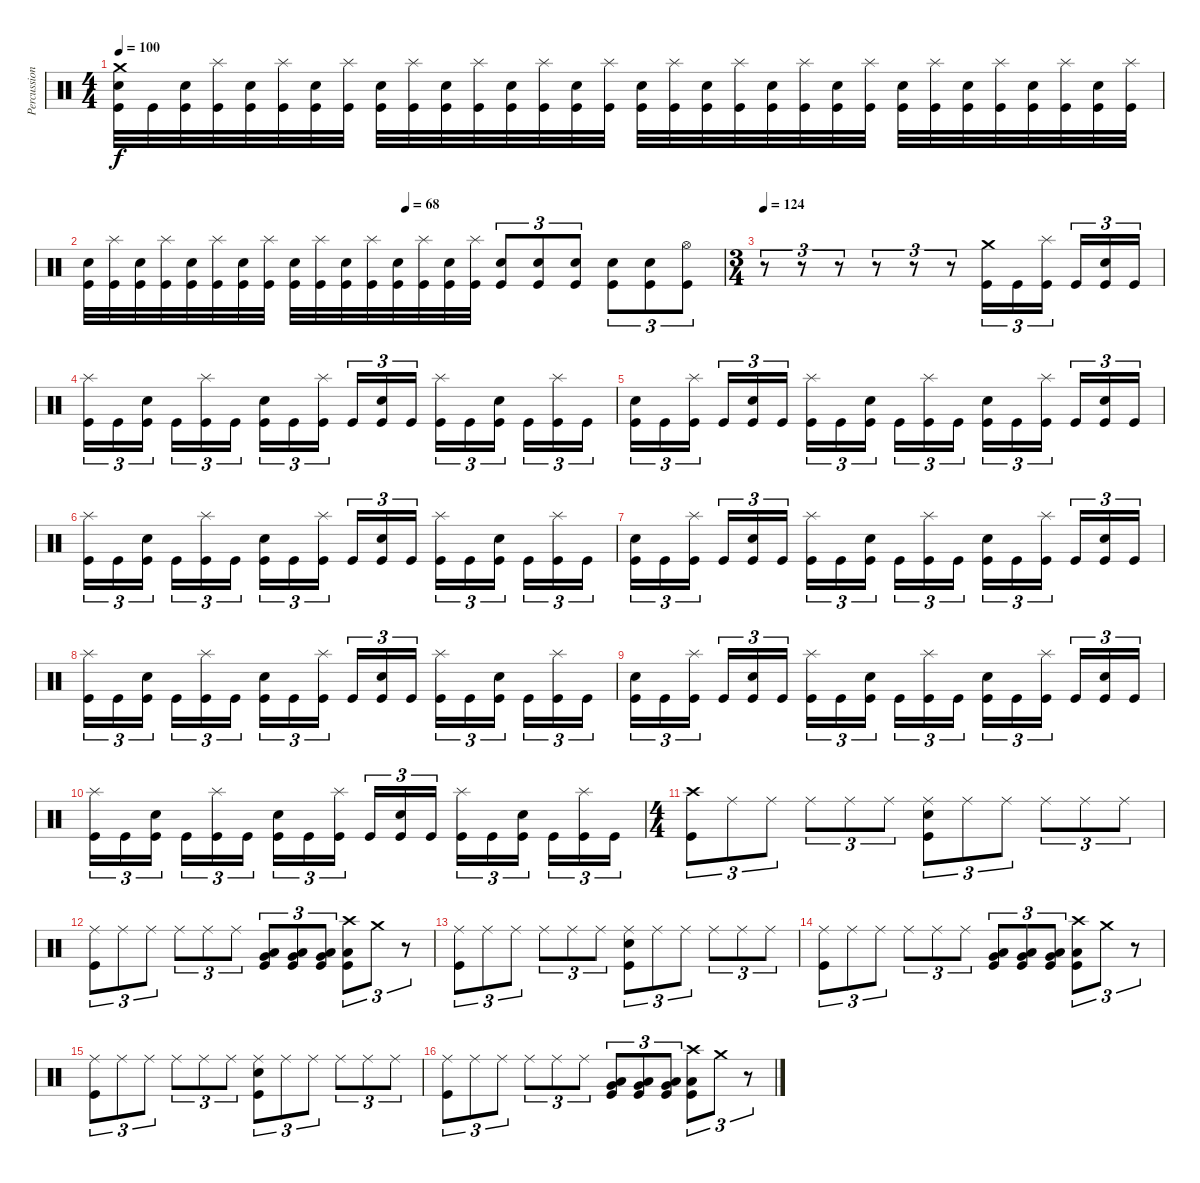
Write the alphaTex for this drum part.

\track ("Percussion" "Percussion") {instrument percussion}
\staff {score}
\articulation defaults
\ts (4 4)
\tempo 100
\clef neutral
\ks c
("Crash medium (hit)" "Electric Snare (hit)" "Kick (hit)").32{dy f} "Kick (hit)".32 ("Electric Snare (hit)" "Kick (hit)").32 ("Splash (hit)" "Kick (hit)").32 ("Electric Snare (hit)" "Kick (hit)").32 ("Splash (hit)" "Kick (hit)").32 ("Electric Snare (hit)" "Kick (hit)").32 ("Splash (hit)" "Kick (hit)").32 ("Electric Snare (hit)" "Kick (hit)").32 ("Splash (hit)" "Kick (hit)").32 ("Electric Snare (hit)" "Kick (hit)").32 ("Splash (hit)" "Kick (hit)").32 ("Electric Snare (hit)" "Kick (hit)").32 ("Splash (hit)" "Kick (hit)").32 ("Electric Snare (hit)" "Kick (hit)").32 ("Splash (hit)" "Kick (hit)").32 ("Electric Snare (hit)" "Kick (hit)").32 ("Splash (hit)" "Kick (hit)").32 ("Electric Snare (hit)" "Kick (hit)").32 ("Splash (hit)" "Kick (hit)").32 ("Electric Snare (hit)" "Kick (hit)").32 ("Splash (hit)" "Kick (hit)").32 ("Electric Snare (hit)" "Kick (hit)").32 ("Splash (hit)" "Kick (hit)").32 ("Electric Snare (hit)" "Kick (hit)").32 ("Splash (hit)" "Kick (hit)").32 ("Electric Snare (hit)" "Kick (hit)").32 ("Splash (hit)" "Kick (hit)").32 ("Electric Snare (hit)" "Kick (hit)").32 ("Splash (hit)" "Kick (hit)").32 ("Electric Snare (hit)" "Kick (hit)").32 ("Splash (hit)" "Kick (hit)").32 |
\tempo (68 0.5)
("Electric Snare (hit)" "Kick (hit)").32 ("Splash (hit)" "Kick (hit)").32 ("Electric Snare (hit)" "Kick (hit)").32 ("Splash (hit)" "Kick (hit)").32 ("Electric Snare (hit)" "Kick (hit)").32 ("Splash (hit)" "Kick (hit)").32 ("Electric Snare (hit)" "Kick (hit)").32 ("Splash (hit)" "Kick (hit)").32 ("Electric Snare (hit)" "Kick (hit)").32 ("Splash (hit)" "Kick (hit)").32 ("Electric Snare (hit)" "Kick (hit)").32 ("Splash (hit)" "Kick (hit)").32 ("Electric Snare (hit)" "Kick (hit)").32 ("Splash (hit)" "Kick (hit)").32 ("Electric Snare (hit)" "Kick (hit)").32 ("Splash (hit)" "Kick (hit)").32 ("Electric Snare (hit)" "Kick (hit)").8{tu (3 2)} ("Electric Snare (hit)" "Kick (hit)").8{tu (3 2)} ("Electric Snare (hit)" "Kick (hit)").8{tu (3 2)} ("Electric Snare (hit)" "Kick (hit)").8{tu (3 2)} ("Electric Snare (hit)" "Kick (hit)").8{tu (3 2)} ("Hi-Hat (open)" "Kick (hit)").8{tu (3 2)} |
\ts (3 4)
\tempo 124
r.8{tu (3 2)} r.8{tu (3 2)} r.8{tu (3 2)} r.8{tu (3 2)} r.8{tu (3 2)} r.8{tu (3 2)} ("Crash medium (hit)" "Kick (hit)").16{tu (3 2)} "Kick (hit)".16{tu (3 2)} ("Splash (hit)" "Kick (hit)").16{tu (3 2)} "Kick (hit)".16{tu (3 2)} ("Electric Snare (hit)" "Kick (hit)").16{tu (3 2)} "Kick (hit)".16{tu (3 2)} |
("Splash (hit)" "Kick (hit)").16{tu (3 2)} "Kick (hit)".16{tu (3 2)} ("Electric Snare (hit)" "Kick (hit)").16{tu (3 2)} "Kick (hit)".16{tu (3 2)} ("Splash (hit)" "Kick (hit)").16{tu (3 2)} "Kick (hit)".16{tu (3 2)} ("Electric Snare (hit)" "Kick (hit)").16{tu (3 2)} "Kick (hit)".16{tu (3 2)} ("Splash (hit)" "Kick (hit)").16{tu (3 2)} "Kick (hit)".16{tu (3 2)} ("Electric Snare (hit)" "Kick (hit)").16{tu (3 2)} "Kick (hit)".16{tu (3 2)} ("Splash (hit)" "Kick (hit)").16{tu (3 2)} "Kick (hit)".16{tu (3 2)} ("Electric Snare (hit)" "Kick (hit)").16{tu (3 2)} "Kick (hit)".16{tu (3 2)} ("Splash (hit)" "Kick (hit)").16{tu (3 2)} "Kick (hit)".16{tu (3 2)} |
("Electric Snare (hit)" "Kick (hit)").16{tu (3 2)} "Kick (hit)".16{tu (3 2)} ("Splash (hit)" "Kick (hit)").16{tu (3 2)} "Kick (hit)".16{tu (3 2)} ("Electric Snare (hit)" "Kick (hit)").16{tu (3 2)} "Kick (hit)".16{tu (3 2)} ("Splash (hit)" "Kick (hit)").16{tu (3 2)} "Kick (hit)".16{tu (3 2)} ("Electric Snare (hit)" "Kick (hit)").16{tu (3 2)} "Kick (hit)".16{tu (3 2)} ("Splash (hit)" "Kick (hit)").16{tu (3 2)} "Kick (hit)".16{tu (3 2)} ("Electric Snare (hit)" "Kick (hit)").16{tu (3 2)} "Kick (hit)".16{tu (3 2)} ("Splash (hit)" "Kick (hit)").16{tu (3 2)} "Kick (hit)".16{tu (3 2)} ("Electric Snare (hit)" "Kick (hit)").16{tu (3 2)} "Kick (hit)".16{tu (3 2)} |
("Splash (hit)" "Kick (hit)").16{tu (3 2)} "Kick (hit)".16{tu (3 2)} ("Electric Snare (hit)" "Kick (hit)").16{tu (3 2)} "Kick (hit)".16{tu (3 2)} ("Splash (hit)" "Kick (hit)").16{tu (3 2)} "Kick (hit)".16{tu (3 2)} ("Electric Snare (hit)" "Kick (hit)").16{tu (3 2)} "Kick (hit)".16{tu (3 2)} ("Splash (hit)" "Kick (hit)").16{tu (3 2)} "Kick (hit)".16{tu (3 2)} ("Electric Snare (hit)" "Kick (hit)").16{tu (3 2)} "Kick (hit)".16{tu (3 2)} ("Splash (hit)" "Kick (hit)").16{tu (3 2)} "Kick (hit)".16{tu (3 2)} ("Electric Snare (hit)" "Kick (hit)").16{tu (3 2)} "Kick (hit)".16{tu (3 2)} ("Splash (hit)" "Kick (hit)").16{tu (3 2)} "Kick (hit)".16{tu (3 2)} |
("Electric Snare (hit)" "Kick (hit)").16{tu (3 2)} "Kick (hit)".16{tu (3 2)} ("Splash (hit)" "Kick (hit)").16{tu (3 2)} "Kick (hit)".16{tu (3 2)} ("Electric Snare (hit)" "Kick (hit)").16{tu (3 2)} "Kick (hit)".16{tu (3 2)} ("Splash (hit)" "Kick (hit)").16{tu (3 2)} "Kick (hit)".16{tu (3 2)} ("Electric Snare (hit)" "Kick (hit)").16{tu (3 2)} "Kick (hit)".16{tu (3 2)} ("Splash (hit)" "Kick (hit)").16{tu (3 2)} "Kick (hit)".16{tu (3 2)} ("Electric Snare (hit)" "Kick (hit)").16{tu (3 2)} "Kick (hit)".16{tu (3 2)} ("Splash (hit)" "Kick (hit)").16{tu (3 2)} "Kick (hit)".16{tu (3 2)} ("Electric Snare (hit)" "Kick (hit)").16{tu (3 2)} "Kick (hit)".16{tu (3 2)} |
("Splash (hit)" "Kick (hit)").16{tu (3 2)} "Kick (hit)".16{tu (3 2)} ("Electric Snare (hit)" "Kick (hit)").16{tu (3 2)} "Kick (hit)".16{tu (3 2)} ("Splash (hit)" "Kick (hit)").16{tu (3 2)} "Kick (hit)".16{tu (3 2)} ("Electric Snare (hit)" "Kick (hit)").16{tu (3 2)} "Kick (hit)".16{tu (3 2)} ("Splash (hit)" "Kick (hit)").16{tu (3 2)} "Kick (hit)".16{tu (3 2)} ("Electric Snare (hit)" "Kick (hit)").16{tu (3 2)} "Kick (hit)".16{tu (3 2)} ("Splash (hit)" "Kick (hit)").16{tu (3 2)} "Kick (hit)".16{tu (3 2)} ("Electric Snare (hit)" "Kick (hit)").16{tu (3 2)} "Kick (hit)".16{tu (3 2)} ("Splash (hit)" "Kick (hit)").16{tu (3 2)} "Kick (hit)".16{tu (3 2)} |
("Electric Snare (hit)" "Kick (hit)").16{tu (3 2)} "Kick (hit)".16{tu (3 2)} ("Splash (hit)" "Kick (hit)").16{tu (3 2)} "Kick (hit)".16{tu (3 2)} ("Electric Snare (hit)" "Kick (hit)").16{tu (3 2)} "Kick (hit)".16{tu (3 2)} ("Splash (hit)" "Kick (hit)").16{tu (3 2)} "Kick (hit)".16{tu (3 2)} ("Electric Snare (hit)" "Kick (hit)").16{tu (3 2)} "Kick (hit)".16{tu (3 2)} ("Splash (hit)" "Kick (hit)").16{tu (3 2)} "Kick (hit)".16{tu (3 2)} ("Electric Snare (hit)" "Kick (hit)").16{tu (3 2)} "Kick (hit)".16{tu (3 2)} ("Splash (hit)" "Kick (hit)").16{tu (3 2)} "Kick (hit)".16{tu (3 2)} ("Electric Snare (hit)" "Kick (hit)").16{tu (3 2)} "Kick (hit)".16{tu (3 2)} |
("Splash (hit)" "Kick (hit)").16{tu (3 2)} "Kick (hit)".16{tu (3 2)} ("Electric Snare (hit)" "Kick (hit)").16{tu (3 2)} "Kick (hit)".16{tu (3 2)} ("Splash (hit)" "Kick (hit)").16{tu (3 2)} "Kick (hit)".16{tu (3 2)} ("Electric Snare (hit)" "Kick (hit)").16{tu (3 2)} "Kick (hit)".16{tu (3 2)} ("Splash (hit)" "Kick (hit)").16{tu (3 2)} "Kick (hit)".16{tu (3 2)} ("Electric Snare (hit)" "Kick (hit)").16{tu (3 2)} "Kick (hit)".16{tu (3 2)} ("Splash (hit)" "Kick (hit)").16{tu (3 2)} "Kick (hit)".16{tu (3 2)} ("Electric Snare (hit)" "Kick (hit)").16{tu (3 2)} "Kick (hit)".16{tu (3 2)} ("Splash (hit)" "Kick (hit)").16{tu (3 2)} "Kick (hit)".16{tu (3 2)} |
\ts (4 4)
("Crash high (hit)" "Kick (hit)").8{tu (3 2)} "Ride (middle)".8{tu (3 2)} "Ride (middle)".8{tu (3 2)} "Ride (middle)".8{tu (3 2)} "Ride (middle)".8{tu (3 2)} "Ride (middle)".8{tu (3 2)} ("Ride (middle)" "Electric Snare (hit)" "Kick (hit)").8{tu (3 2)} "Ride (middle)".8{tu (3 2)} "Ride (middle)".8{tu (3 2)} "Ride (middle)".8{tu (3 2)} "Ride (middle)".8{tu (3 2)} "Ride (middle)".8{tu (3 2)} |
("Ride (middle)" "Kick (hit)").8{tu (3 2)} "Ride (middle)".8{tu (3 2)} "Ride (middle)".8{tu (3 2)} "Ride (middle)".8{tu (3 2)} "Ride (middle)".8{tu (3 2)} "Ride (middle)".8{tu (3 2)} ("Very Low Tom (hit)" "Low Floor Tom (hit)" "Kick (hit)").8{tu (3 2)} ("Very Low Tom (hit)" "Low Floor Tom (hit)" "Kick (hit)").8{tu (3 2)} ("Very Low Tom (hit)" "Low Floor Tom (hit)" "Kick (hit)").8{tu (3 2)} ("Crash high (hit)" "Low Floor Tom (hit)" "Kick (hit)").8{tu (3 2)} "Crash medium (hit)".8{tu (3 2)} r.8{tu (3 2)} |
("Ride (middle)" "Kick (hit)").8{tu (3 2)} "Ride (middle)".8{tu (3 2)} "Ride (middle)".8{tu (3 2)} "Ride (middle)".8{tu (3 2)} "Ride (middle)".8{tu (3 2)} "Ride (middle)".8{tu (3 2)} ("Ride (middle)" "Electric Snare (hit)" "Kick (hit)").8{tu (3 2)} "Ride (middle)".8{tu (3 2)} "Ride (middle)".8{tu (3 2)} "Ride (middle)".8{tu (3 2)} "Ride (middle)".8{tu (3 2)} "Ride (middle)".8{tu (3 2)} |
("Ride (middle)" "Kick (hit)").8{tu (3 2)} "Ride (middle)".8{tu (3 2)} "Ride (middle)".8{tu (3 2)} "Ride (middle)".8{tu (3 2)} "Ride (middle)".8{tu (3 2)} "Ride (middle)".8{tu (3 2)} ("Very Low Tom (hit)" "Low Floor Tom (hit)" "Kick (hit)").8{tu (3 2)} ("Very Low Tom (hit)" "Low Floor Tom (hit)" "Kick (hit)").8{tu (3 2)} ("Very Low Tom (hit)" "Low Floor Tom (hit)" "Kick (hit)").8{tu (3 2)} ("Crash high (hit)" "Low Floor Tom (hit)" "Kick (hit)").8{tu (3 2)} "Crash medium (hit)".8{tu (3 2)} r.8{tu (3 2)} |
("Ride (middle)" "Kick (hit)").8{tu (3 2)} "Ride (middle)".8{tu (3 2)} "Ride (middle)".8{tu (3 2)} "Ride (middle)".8{tu (3 2)} "Ride (middle)".8{tu (3 2)} "Ride (middle)".8{tu (3 2)} ("Ride (middle)" "Electric Snare (hit)" "Kick (hit)").8{tu (3 2)} "Ride (middle)".8{tu (3 2)} "Ride (middle)".8{tu (3 2)} "Ride (middle)".8{tu (3 2)} "Ride (middle)".8{tu (3 2)} "Ride (middle)".8{tu (3 2)} |
("Ride (middle)" "Kick (hit)").8{tu (3 2)} "Ride (middle)".8{tu (3 2)} "Ride (middle)".8{tu (3 2)} "Ride (middle)".8{tu (3 2)} "Ride (middle)".8{tu (3 2)} "Ride (middle)".8{tu (3 2)} ("Very Low Tom (hit)" "Low Floor Tom (hit)" "Kick (hit)").8{tu (3 2)} ("Very Low Tom (hit)" "Low Floor Tom (hit)" "Kick (hit)").8{tu (3 2)} ("Very Low Tom (hit)" "Low Floor Tom (hit)" "Kick (hit)").8{tu (3 2)} ("Crash high (hit)" "Low Floor Tom (hit)" "Kick (hit)").8{tu (3 2)} "Crash medium (hit)".8{tu (3 2)} r.8{tu (3 2)}
